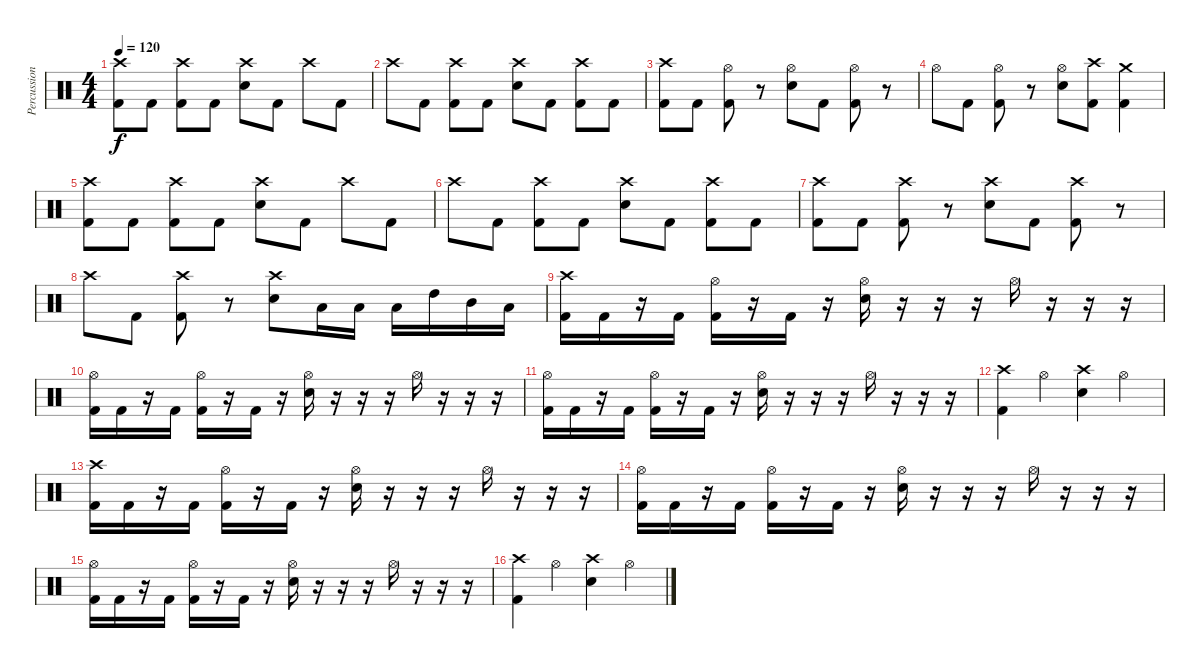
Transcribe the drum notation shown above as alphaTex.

\track ("Percussion" "Percussion") {instrument percussion}
\staff {score}
\articulation defaults
\ts (4 4)
\tempo 120
\clef neutral
\ks c
("Crash high (hit)" "Kick (hit) 2").8{dy f} "Kick (hit) 2".8 ("Crash high (hit)" "Kick (hit) 2").8 "Kick (hit) 2".8 ("Crash high (hit)" "Snare (hit) 2").8 "Kick (hit) 2".8 "Crash high (hit)".8 "Kick (hit) 2".8 |
"Crash high (hit)".8 "Kick (hit) 2".8 ("Crash high (hit)" "Kick (hit) 2").8 "Kick (hit) 2".8 ("Crash high (hit)" "Snare (hit) 2").8 "Kick (hit) 2".8 ("Crash high (hit)" "Kick (hit) 2").8 "Kick (hit) 2".8 |
("Crash high (hit)" "Kick (hit) 2").8 "Kick (hit) 2".8 ("Hi-Hat (open)" "Kick (hit) 2").8 r.8 ("Hi-Hat (open)" "Snare (hit) 2").8 "Kick (hit) 2".8 ("Hi-Hat (open)" "Kick (hit) 2").8 r.8 |
"Hi-Hat (open)".8 "Kick (hit) 2".8 ("Hi-Hat (open)" "Kick (hit) 2").8 r.8 ("Hi-Hat (open)" "Snare (hit) 2").8 ("Crash high (hit)" "Kick (hit) 2").8 ("Crash medium (hit)" "Kick (hit) 2").4 |
("Crash high (hit)" "Kick (hit) 2").8 "Kick (hit) 2".8 ("Crash high (hit)" "Kick (hit) 2").8 "Kick (hit) 2".8 ("Crash high (hit)" "Snare (hit) 2").8 "Kick (hit) 2".8 "Crash high (hit)".8 "Kick (hit) 2".8 |
"Crash high (hit)".8 "Kick (hit) 2".8 ("Crash high (hit)" "Kick (hit) 2").8 "Kick (hit) 2".8 ("Crash high (hit)" "Snare (hit) 2").8 "Kick (hit) 2".8 ("Crash high (hit)" "Kick (hit) 2").8 "Kick (hit) 2".8 |
("Crash high (hit)" "Kick (hit) 2").8 "Kick (hit) 2".8 ("Crash high (hit)" "Kick (hit) 2").8 r.8 ("Crash high (hit)" "Snare (hit) 2").8 "Kick (hit) 2".8 ("Crash high (hit)" "Kick (hit) 2").8 r.8 |
"Crash high (hit)".8 "Kick (hit) 2".8 ("Crash high (hit)" "Kick (hit) 2").8 r.8 ("Crash high (hit)" "Snare (hit) 2").8 "Low Tom (hit)".16 "Low Tom (hit)".16 "Low Tom (hit)".16 "High Tom (hit)".16 "Mid Tom (hit)".16 "Low Tom (hit)".16 |
("Crash high (hit)" "Kick (hit) 2").16 "Kick (hit) 2".16 r.16 "Kick (hit) 2".16 ("Hi-Hat (open)" "Kick (hit) 2").16 r.16 "Kick (hit) 2".16 r.16 ("Hi-Hat (open)" "Snare (hit) 2").16 r.16 r.16 r.16 "Hi-Hat (open)".16 r.16 r.16 r.16 |
("Hi-Hat (open)" "Kick (hit) 2").16 "Kick (hit) 2".16 r.16 "Kick (hit) 2".16 ("Hi-Hat (open)" "Kick (hit) 2").16 r.16 "Kick (hit) 2".16 r.16 ("Hi-Hat (open)" "Snare (hit) 2").16 r.16 r.16 r.16 "Hi-Hat (open)".16 r.16 r.16 r.16 |
("Hi-Hat (open)" "Kick (hit) 2").16 "Kick (hit) 2".16 r.16 "Kick (hit) 2".16 ("Hi-Hat (open)" "Kick (hit) 2").16 r.16 "Kick (hit) 2".16 r.16 ("Hi-Hat (open)" "Snare (hit) 2").16 r.16 r.16 r.16 "Hi-Hat (open)".16 r.16 r.16 r.16 |
("Crash high (hit)" "Kick (hit) 2").4 "Hi-Hat (open)".4 ("Crash high (hit)" "Snare (hit) 2").4 "Hi-Hat (open)".4 |
("Crash high (hit)" "Kick (hit) 2").16 "Kick (hit) 2".16 r.16 "Kick (hit) 2".16 ("Hi-Hat (open)" "Kick (hit) 2").16 r.16 "Kick (hit) 2".16 r.16 ("Hi-Hat (open)" "Snare (hit) 2").16 r.16 r.16 r.16 "Hi-Hat (open)".16 r.16 r.16 r.16 |
("Hi-Hat (open)" "Kick (hit) 2").16 "Kick (hit) 2".16 r.16 "Kick (hit) 2".16 ("Hi-Hat (open)" "Kick (hit) 2").16 r.16 "Kick (hit) 2".16 r.16 ("Hi-Hat (open)" "Snare (hit) 2").16 r.16 r.16 r.16 "Hi-Hat (open)".16 r.16 r.16 r.16 |
("Hi-Hat (open)" "Kick (hit) 2").16 "Kick (hit) 2".16 r.16 "Kick (hit) 2".16 ("Hi-Hat (open)" "Kick (hit) 2").16 r.16 "Kick (hit) 2".16 r.16 ("Hi-Hat (open)" "Snare (hit) 2").16 r.16 r.16 r.16 "Hi-Hat (open)".16 r.16 r.16 r.16 |
("Crash high (hit)" "Kick (hit) 2").4 "Hi-Hat (open)".4 ("Crash high (hit)" "Snare (hit) 2").4 "Hi-Hat (open)".4
